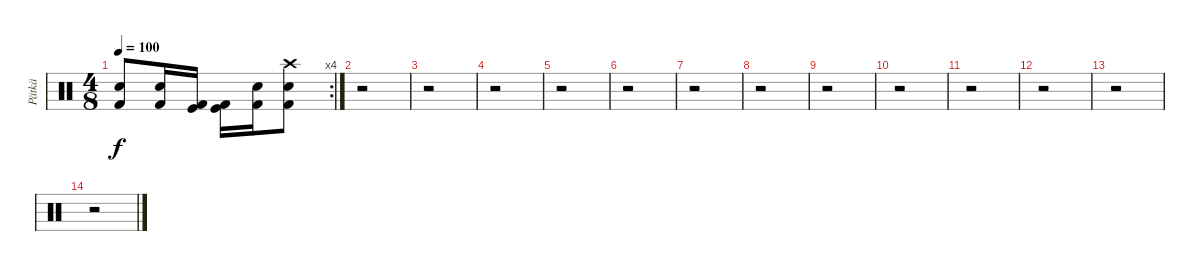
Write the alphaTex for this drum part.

\track ("Pätkä" "Pätkä") {instrument percussion}
\staff {score}
\articulation defaults
\rc 4
\ts (4 8)
\tempo 100
\clef neutral
\ks c
("Electric Snare (hit)" "Kick (hit) 2").8{dy f} ("Snare (hit) 2" "Kick (hit) 2").16 ("Kick (hit)" "Kick (hit) 2").16 ("Kick (hit)" "Kick (hit) 2").16 ("Snare (hit) 2" "Kick (hit) 2").16 ("Crash high (hit)" "Electric Snare (hit)" "Kick (hit) 2").8 |
r.2 |
r.2 |
r.2 |
r.2 |
r.2 |
r.2 |
r.2 |
r.2 |
r.2 |
r.2 |
r.2 |
r.2 |
r.2
